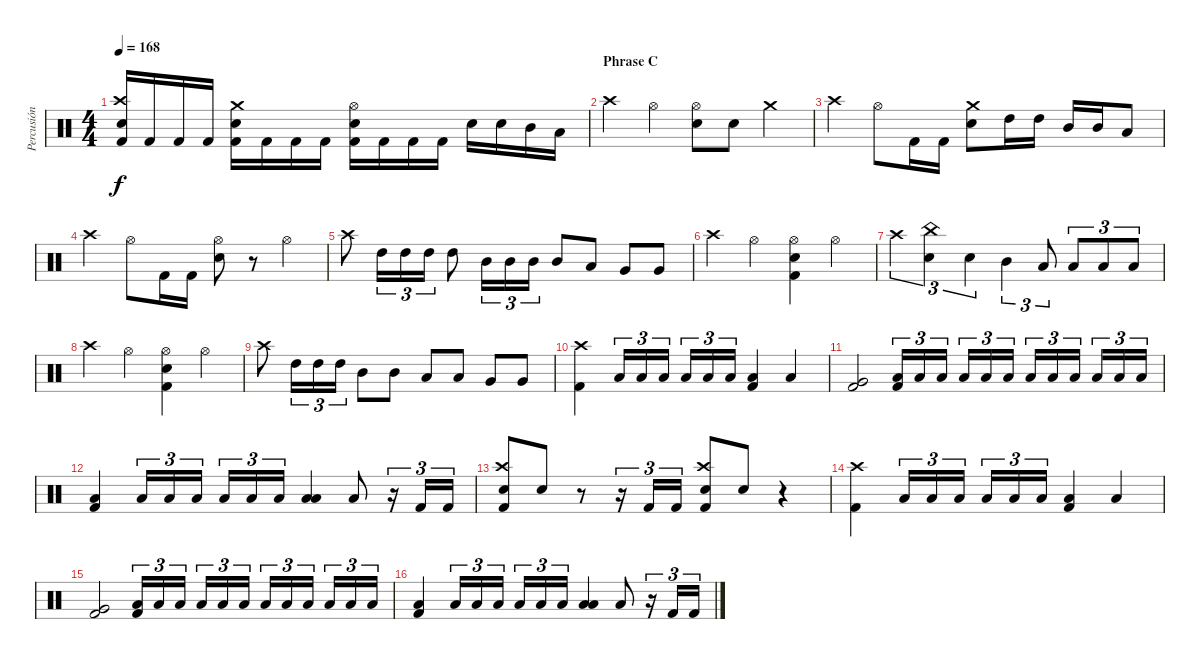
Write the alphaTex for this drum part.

\track ("Percusión" "Percusión") {instrument percussion}
\staff {score}
\articulation defaults
\ts (4 4)
\tempo 168
\clef neutral
\ks c
("Electric Snare (hit)" "Crash high (hit)" "Kick (hit) 2").16{dy f} "Kick (hit) 2".16 "Kick (hit) 2".16 "Kick (hit) 2".16 ("Electric Snare (hit)" "Crash medium (hit)" "Kick (hit) 2").16 "Kick (hit) 2".16 "Kick (hit) 2".16 "Kick (hit) 2".16 ("Electric Snare (hit)" "Hi-Hat (open)" "Kick (hit) 2").16 "Kick (hit) 2".16 "Kick (hit) 2".16 "Kick (hit) 2".16 "Electric Snare (hit)".16 "Electric Snare (hit)".16 "Mid Tom (hit)".16 "Low Tom (hit)".16 |
\section ("" "Phrase C")
"Crash high (hit)".4 "Hi-Hat (open)".4 ("Hi-Hat (open)" "Electric Snare (hit)").8 "Electric Snare (hit)".8 "Crash medium (hit)".4 |
"Crash high (hit)".4 "Hi-Hat (open)".8 "Kick (hit) 2".16 "Kick (hit) 2".16 ("Crash medium (hit)" "Electric Snare (hit)").8 "High Tom (hit)".16 "High Tom (hit)".16 "Mid Tom (hit)".16 "Mid Tom (hit)".16 "Low Tom (hit)".8 |
"Crash high (hit)".4 "Hi-Hat (open)".8 "Kick (hit) 2".16 "Kick (hit) 2".16 ("Hi-Hat (open)" "Electric Snare (hit)").8 r.8 "Hi-Hat (open)".4 |
"Crash high (hit)".8 "High Tom (hit)".16{tu (3 2)} "High Tom (hit)".16{tu (3 2)} "High Tom (hit)".16{tu (3 2)} "High Tom (hit)".8 "Mid Tom (hit)".16{tu (3 2)} "Mid Tom (hit)".16{tu (3 2)} "Mid Tom (hit)".16{tu (3 2)} "Mid Tom (hit)".8 "Low Tom (hit)".8 "Very Low Tom (hit)".8 "Very Low Tom (hit)".8 |
"Crash high (hit)".4 "Hi-Hat (open)".4 ("Hi-Hat (open)" "Electric Snare (hit)" "Kick (hit) 2").4 "Hi-Hat (open)".4 |
"Crash high (hit)".4{tu (3 2)} ("China (hit)" "Electric Snare (hit)").4{tu (3 2)} "Electric Snare (hit)".4{tu (3 2)} "Mid Tom (hit)".4{tu (3 2)} "Low Tom (hit)".8{tu (3 2)} "Low Tom (hit)".8{tu (3 2)} "Low Tom (hit)".8{tu (3 2)} "Low Tom (hit)".8{tu (3 2)} |
"Crash high (hit)".4 "Hi-Hat (open)".4 ("Hi-Hat (open)" "Electric Snare (hit)" "Kick (hit) 2").4 "Hi-Hat (open)".4 |
"Crash high (hit)".8 "High Tom (hit)".16{tu (3 2)} "High Tom (hit)".16{tu (3 2)} "High Tom (hit)".16{tu (3 2)} "Mid Tom (hit)".8 "Mid Tom (hit)".8 "Low Tom (hit)".8 "Low Tom (hit)".8 "Very Low Tom (hit)".8 "Very Low Tom (hit)".8 |
("Crash high (hit)" "Kick (hit) 2").4 "Low Tom (hit)".16{tu (3 2)} "Low Tom (hit)".16{tu (3 2)} "Low Tom (hit)".16{tu (3 2)} "Low Tom (hit)".16{tu (3 2)} "Low Tom (hit)".16{tu (3 2)} "Low Tom (hit)".16{tu (3 2)} ("Low Tom (hit)" "Kick (hit) 2").4 "Low Tom (hit)".4 |
("Very Low Tom (hit)" "Kick (hit) 2").2 ("Low Tom (hit)" "Kick (hit) 2").16{tu (3 2)} "Low Tom (hit)".16{tu (3 2)} "Low Tom (hit)".16{tu (3 2)} "Low Tom (hit)".16{tu (3 2)} "Low Tom (hit)".16{tu (3 2)} "Low Tom (hit)".16{tu (3 2)} "Low Tom (hit)".16{tu (3 2)} "Low Tom (hit)".16{tu (3 2)} "Low Tom (hit)".16{tu (3 2)} "Low Tom (hit)".16{tu (3 2)} "Low Tom (hit)".16{tu (3 2)} "Low Tom (hit)".16{tu (3 2)} |
("Low Tom (hit)" "Kick (hit) 2").4 "Low Tom (hit)".16{tu (3 2)} "Low Tom (hit)".16{tu (3 2)} "Low Tom (hit)".16{tu (3 2)} "Low Tom (hit)".16{tu (3 2)} "Low Tom (hit)".16{tu (3 2)} "Low Tom (hit)".16{tu (3 2)} ("Low Tom (hit)" "Low Tom (hit)").4 "Low Tom (hit)".8 r.16{tu (3 2)} "Kick (hit) 2".16{tu (3 2)} "Kick (hit) 2".16{tu (3 2)} |
("Crash high (hit)" "Electric Snare (hit)" "Kick (hit) 2").8 "Electric Snare (hit)".8 r.8 r.16{tu (3 2)} "Kick (hit) 2".16{tu (3 2)} "Kick (hit) 2".16{tu (3 2)} ("Crash high (hit)" "Electric Snare (hit)" "Kick (hit) 2").8 "Electric Snare (hit)".8 r.4 |
("Crash high (hit)" "Kick (hit) 2").4 "Low Tom (hit)".16{tu (3 2)} "Low Tom (hit)".16{tu (3 2)} "Low Tom (hit)".16{tu (3 2)} "Low Tom (hit)".16{tu (3 2)} "Low Tom (hit)".16{tu (3 2)} "Low Tom (hit)".16{tu (3 2)} ("Low Tom (hit)" "Kick (hit) 2").4 "Low Tom (hit)".4 |
("Very Low Tom (hit)" "Kick (hit) 2").2 ("Low Tom (hit)" "Kick (hit) 2").16{tu (3 2)} "Low Tom (hit)".16{tu (3 2)} "Low Tom (hit)".16{tu (3 2)} "Low Tom (hit)".16{tu (3 2)} "Low Tom (hit)".16{tu (3 2)} "Low Tom (hit)".16{tu (3 2)} "Low Tom (hit)".16{tu (3 2)} "Low Tom (hit)".16{tu (3 2)} "Low Tom (hit)".16{tu (3 2)} "Low Tom (hit)".16{tu (3 2)} "Low Tom (hit)".16{tu (3 2)} "Low Tom (hit)".16{tu (3 2)} |
("Low Tom (hit)" "Kick (hit) 2").4 "Low Tom (hit)".16{tu (3 2)} "Low Tom (hit)".16{tu (3 2)} "Low Tom (hit)".16{tu (3 2)} "Low Tom (hit)".16{tu (3 2)} "Low Tom (hit)".16{tu (3 2)} "Low Tom (hit)".16{tu (3 2)} ("Low Tom (hit)" "Low Tom (hit)").4 "Low Tom (hit)".8 r.16{tu (3 2)} "Kick (hit) 2".16{tu (3 2)} "Kick (hit) 2".16{tu (3 2)}
